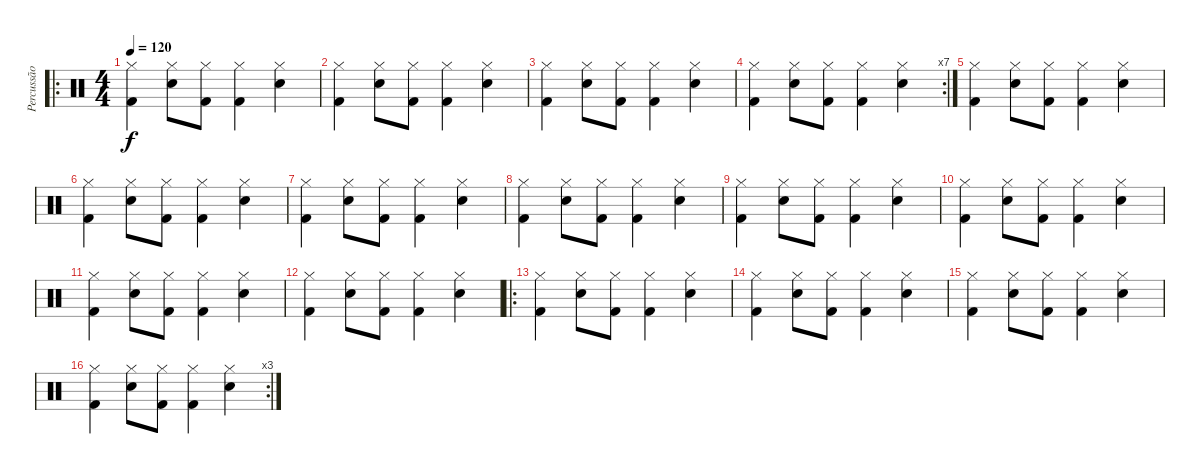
\track ("Percussão" "Percussão") {instrument percussion}
\staff {score}
\articulation defaults
\ro
\ts (4 4)
\tempo 120
\clef neutral
\ks c
("Kick (hit) 2" "Hi-Hat (closed)").4{dy f} ("Snare (hit) 2" "Hi-Hat (closed)").8 ("Kick (hit) 2" "Hi-Hat (closed)").8 ("Kick (hit) 2" "Hi-Hat (closed)").4 ("Snare (hit) 2" "Hi-Hat (closed)").4 |
("Kick (hit) 2" "Hi-Hat (closed)").4 ("Snare (hit) 2" "Hi-Hat (closed)").8 ("Kick (hit) 2" "Hi-Hat (closed)").8 ("Kick (hit) 2" "Hi-Hat (closed)").4 ("Snare (hit) 2" "Hi-Hat (closed)").4 |
("Kick (hit) 2" "Hi-Hat (closed)").4 ("Snare (hit) 2" "Hi-Hat (closed)").8 ("Kick (hit) 2" "Hi-Hat (closed)").8 ("Kick (hit) 2" "Hi-Hat (closed)").4 ("Snare (hit) 2" "Hi-Hat (closed)").4 |
\rc 7
("Kick (hit) 2" "Hi-Hat (closed)").4 ("Snare (hit) 2" "Hi-Hat (closed)").8 ("Kick (hit) 2" "Hi-Hat (closed)").8 ("Kick (hit) 2" "Hi-Hat (closed)").4 ("Snare (hit) 2" "Hi-Hat (closed)").4 |
("Kick (hit) 2" "Hi-Hat (closed)").4 ("Snare (hit) 2" "Hi-Hat (closed)").8 ("Kick (hit) 2" "Hi-Hat (closed)").8 ("Kick (hit) 2" "Hi-Hat (closed)").4 ("Snare (hit) 2" "Hi-Hat (closed)").4 |
("Kick (hit) 2" "Hi-Hat (closed)").4 ("Snare (hit) 2" "Hi-Hat (closed)").8 ("Kick (hit) 2" "Hi-Hat (closed)").8 ("Kick (hit) 2" "Hi-Hat (closed)").4 ("Snare (hit) 2" "Hi-Hat (closed)").4 |
("Kick (hit) 2" "Hi-Hat (closed)").4 ("Snare (hit) 2" "Hi-Hat (closed)").8 ("Kick (hit) 2" "Hi-Hat (closed)").8 ("Kick (hit) 2" "Hi-Hat (closed)").4 ("Snare (hit) 2" "Hi-Hat (closed)").4 |
("Kick (hit) 2" "Hi-Hat (closed)").4 ("Snare (hit) 2" "Hi-Hat (closed)").8 ("Kick (hit) 2" "Hi-Hat (closed)").8 ("Kick (hit) 2" "Hi-Hat (closed)").4 ("Snare (hit) 2" "Hi-Hat (closed)").4 |
("Kick (hit) 2" "Hi-Hat (closed)").4 ("Snare (hit) 2" "Hi-Hat (closed)").8 ("Kick (hit) 2" "Hi-Hat (closed)").8 ("Kick (hit) 2" "Hi-Hat (closed)").4 ("Snare (hit) 2" "Hi-Hat (closed)").4 |
("Kick (hit) 2" "Hi-Hat (closed)").4 ("Snare (hit) 2" "Hi-Hat (closed)").8 ("Kick (hit) 2" "Hi-Hat (closed)").8 ("Kick (hit) 2" "Hi-Hat (closed)").4 ("Snare (hit) 2" "Hi-Hat (closed)").4 |
("Kick (hit) 2" "Hi-Hat (closed)").4 ("Snare (hit) 2" "Hi-Hat (closed)").8 ("Kick (hit) 2" "Hi-Hat (closed)").8 ("Kick (hit) 2" "Hi-Hat (closed)").4 ("Snare (hit) 2" "Hi-Hat (closed)").4 |
("Kick (hit) 2" "Hi-Hat (closed)").4 ("Snare (hit) 2" "Hi-Hat (closed)").8 ("Kick (hit) 2" "Hi-Hat (closed)").8 ("Kick (hit) 2" "Hi-Hat (closed)").4 ("Snare (hit) 2" "Hi-Hat (closed)").4 |
\ro
("Kick (hit) 2" "Hi-Hat (closed)").4 ("Snare (hit) 2" "Hi-Hat (closed)").8 ("Kick (hit) 2" "Hi-Hat (closed)").8 ("Kick (hit) 2" "Hi-Hat (closed)").4 ("Snare (hit) 2" "Hi-Hat (closed)").4 |
("Kick (hit) 2" "Hi-Hat (closed)").4 ("Snare (hit) 2" "Hi-Hat (closed)").8 ("Kick (hit) 2" "Hi-Hat (closed)").8 ("Kick (hit) 2" "Hi-Hat (closed)").4 ("Snare (hit) 2" "Hi-Hat (closed)").4 |
("Kick (hit) 2" "Hi-Hat (closed)").4 ("Snare (hit) 2" "Hi-Hat (closed)").8 ("Kick (hit) 2" "Hi-Hat (closed)").8 ("Kick (hit) 2" "Hi-Hat (closed)").4 ("Snare (hit) 2" "Hi-Hat (closed)").4 |
\rc 3
("Kick (hit) 2" "Hi-Hat (closed)").4 ("Snare (hit) 2" "Hi-Hat (closed)").8 ("Kick (hit) 2" "Hi-Hat (closed)").8 ("Kick (hit) 2" "Hi-Hat (closed)").4 ("Snare (hit) 2" "Hi-Hat (closed)").4
